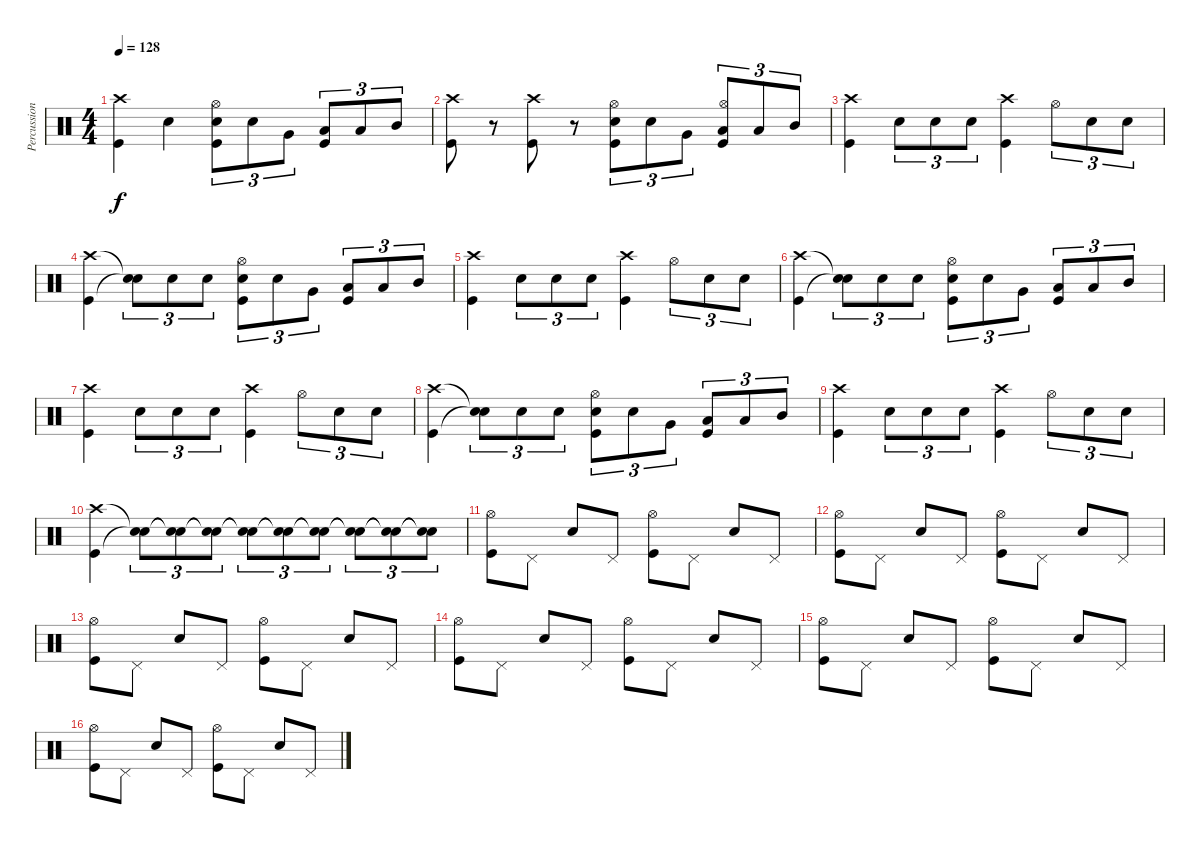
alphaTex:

\track ("Percussion" "Percussion") {instrument percussion}
\staff {score}
\articulation defaults
\ts (4 4)
\tempo 128
\clef neutral
\ks c
("Kick (hit)" "Crash high (hit)").4{dy f} "Snare (hit) 2".4 ("Kick (hit)" "Snare (hit) 2" "Hi-Hat (open)").8{tu (3 2)} "Snare (hit) 2".8{tu (3 2)} "Very Low Tom (hit)".8{tu (3 2)} ("Kick (hit)" "Low Tom (hit)").8{tu (3 2)} "Low Tom (hit)".8{tu (3 2)} "Mid Tom (hit)".8{tu (3 2)} |
("Kick (hit)" "Crash high (hit)").8 r.8 ("Kick (hit)" "Crash high (hit)").8 r.8 ("Snare (hit) 2" "Kick (hit)" "Hi-Hat (open)").8{tu (3 2)} "Snare (hit) 2".8{tu (3 2)} "Very Low Tom (hit)".8{tu (3 2)} ("Low Tom (hit)" "Kick (hit)" "Hi-Hat (open)").8{tu (3 2)} "Low Tom (hit)".8{tu (3 2)} "Mid Tom (hit)".8{tu (3 2)} |
("Kick (hit)" "Crash high (hit)").4 "Snare (hit) 2".8{tu (3 2)} "Snare (hit) 2".8{tu (3 2)} "Snare (hit) 2".8{tu (3 2)} ("Kick (hit)" "Crash high (hit)").4 "Hi-Hat (open)".8{tu (3 2)} "Snare (hit) 2".8{tu (3 2)} "Snare (hit) 2".8{tu (3 2)} |
("Kick (hit)" "Crash high (hit)").4 ("Snare (hit)"{t} "Snare (hit)"{t}).8{tu (3 2)} "Snare (hit) 2".8{tu (3 2)} "Snare (hit) 2".8{tu (3 2)} ("Kick (hit)" "Snare (hit) 2" "Hi-Hat (open)").8{tu (3 2)} "Snare (hit) 2".8{tu (3 2)} "Very Low Tom (hit)".8{tu (3 2)} ("Kick (hit)" "Low Tom (hit)").8{tu (3 2)} "Low Tom (hit)".8{tu (3 2)} "Mid Tom (hit)".8{tu (3 2)} |
("Kick (hit)" "Crash high (hit)").4 "Snare (hit) 2".8{tu (3 2)} "Snare (hit) 2".8{tu (3 2)} "Snare (hit) 2".8{tu (3 2)} ("Kick (hit)" "Crash high (hit)").4 "Hi-Hat (open)".8{tu (3 2)} "Snare (hit) 2".8{tu (3 2)} "Snare (hit) 2".8{tu (3 2)} |
("Kick (hit)" "Crash high (hit)").4 ("Snare (hit)"{t} "Snare (hit)"{t}).8{tu (3 2)} "Snare (hit) 2".8{tu (3 2)} "Snare (hit) 2".8{tu (3 2)} ("Kick (hit)" "Snare (hit) 2" "Hi-Hat (open)").8{tu (3 2)} "Snare (hit) 2".8{tu (3 2)} "Very Low Tom (hit)".8{tu (3 2)} ("Kick (hit)" "Low Tom (hit)").8{tu (3 2)} "Low Tom (hit)".8{tu (3 2)} "Mid Tom (hit)".8{tu (3 2)} |
("Kick (hit)" "Crash high (hit)").4 "Snare (hit) 2".8{tu (3 2)} "Snare (hit) 2".8{tu (3 2)} "Snare (hit) 2".8{tu (3 2)} ("Kick (hit)" "Crash high (hit)").4 "Hi-Hat (open)".8{tu (3 2)} "Snare (hit) 2".8{tu (3 2)} "Snare (hit) 2".8{tu (3 2)} |
("Kick (hit)" "Crash high (hit)").4 ("Snare (hit)"{t} "Snare (hit)"{t}).8{tu (3 2)} "Snare (hit) 2".8{tu (3 2)} "Snare (hit) 2".8{tu (3 2)} ("Kick (hit)" "Snare (hit) 2" "Hi-Hat (open)").8{tu (3 2)} "Snare (hit) 2".8{tu (3 2)} "Very Low Tom (hit)".8{tu (3 2)} ("Kick (hit)" "Low Tom (hit)").8{tu (3 2)} "Low Tom (hit)".8{tu (3 2)} "Mid Tom (hit)".8{tu (3 2)} |
("Kick (hit)" "Crash high (hit)").4 "Snare (hit) 2".8{tu (3 2)} "Snare (hit) 2".8{tu (3 2)} "Snare (hit) 2".8{tu (3 2)} ("Kick (hit)" "Crash high (hit)").4 "Hi-Hat (open)".8{tu (3 2)} "Snare (hit) 2".8{tu (3 2)} "Snare (hit) 2".8{tu (3 2)} |
("Kick (hit)" "Crash high (hit)").4 ("Snare (hit)"{t} "Snare (hit)"{t}).8{tu (3 2)} ("Snare (hit)"{t} "Snare (hit)"{t}).8{tu (3 2)} ("Snare (hit)"{t} "Snare (hit)"{t}).8{tu (3 2)} ("Snare (hit)"{t} "Snare (hit)"{t}).8{tu (3 2)} ("Snare (hit)"{t} "Snare (hit)"{t}).8{tu (3 2)} ("Snare (hit)"{t} "Snare (hit)"{t}).8{tu (3 2)} ("Snare (hit)"{t} "Snare (hit)"{t}).8{tu (3 2)} ("Snare (hit)"{t} "Snare (hit)"{t}).8{tu (3 2)} ("Snare (hit)"{t} "Snare (hit)"{t}).8{tu (3 2)} |
("Kick (hit)" "Hi-Hat (open)").8 "Pedal Hi-Hat (hit)".8 "Snare (hit) 2".8 "Pedal Hi-Hat (hit)".8 ("Kick (hit)" "Hi-Hat (open)").8 "Pedal Hi-Hat (hit)".8 "Snare (hit) 2".8 "Pedal Hi-Hat (hit)".8 |
("Kick (hit)" "Hi-Hat (open)").8 "Pedal Hi-Hat (hit)".8 "Snare (hit) 2".8 "Pedal Hi-Hat (hit)".8 ("Kick (hit)" "Hi-Hat (open)").8 "Pedal Hi-Hat (hit)".8 "Snare (hit) 2".8 "Pedal Hi-Hat (hit)".8 |
("Kick (hit)" "Hi-Hat (open)").8 "Pedal Hi-Hat (hit)".8 "Snare (hit) 2".8 "Pedal Hi-Hat (hit)".8 ("Kick (hit)" "Hi-Hat (open)").8 "Pedal Hi-Hat (hit)".8 "Snare (hit) 2".8 "Pedal Hi-Hat (hit)".8 |
("Kick (hit)" "Hi-Hat (open)").8 "Pedal Hi-Hat (hit)".8 "Snare (hit) 2".8 "Pedal Hi-Hat (hit)".8 ("Kick (hit)" "Hi-Hat (open)").8 "Pedal Hi-Hat (hit)".8 "Snare (hit) 2".8 "Pedal Hi-Hat (hit)".8 |
("Kick (hit)" "Hi-Hat (open)").8 "Pedal Hi-Hat (hit)".8 "Snare (hit) 2".8 "Pedal Hi-Hat (hit)".8 ("Kick (hit)" "Hi-Hat (open)").8 "Pedal Hi-Hat (hit)".8 "Snare (hit) 2".8 "Pedal Hi-Hat (hit)".8 |
("Kick (hit)" "Hi-Hat (open)").8 "Pedal Hi-Hat (hit)".8 "Snare (hit) 2".8 "Pedal Hi-Hat (hit)".8 ("Kick (hit)" "Hi-Hat (open)").8 "Pedal Hi-Hat (hit)".8 "Snare (hit) 2".8 "Pedal Hi-Hat (hit)".8
